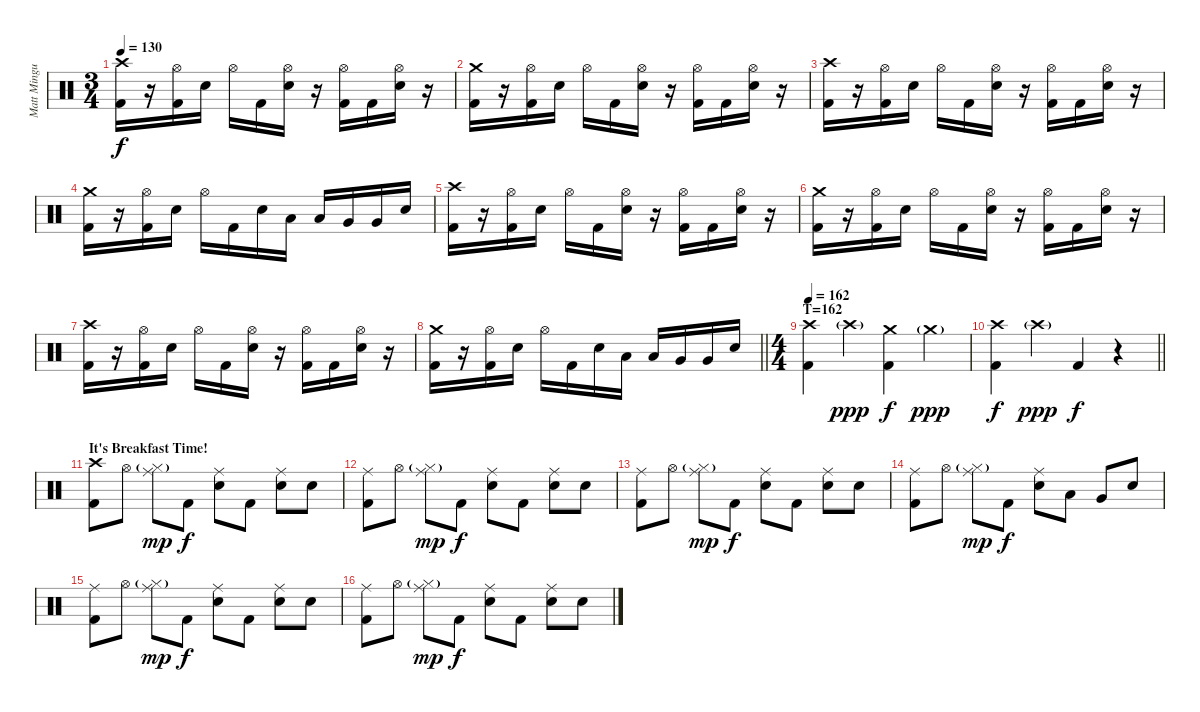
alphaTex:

\track ("Matt Mingus" "Matt Mingu") {instrument percussion}
\staff {score}
\articulation defaults
\ts (3 4)
\tempo 130
\clef neutral
\ks c
("Crash high (hit)" "Kick (hit) 2").16{dy f} r.16 ("Hi-Hat (open)" "Kick (hit) 2").16 "Electric Snare (hit)".16 "Hi-Hat (open)".16 "Kick (hit) 2".16 ("Hi-Hat (open)" "Electric Snare (hit)").16 r.16 ("Hi-Hat (open)" "Kick (hit) 2").16 "Kick (hit) 2".16 ("Hi-Hat (open)" "Electric Snare (hit)").16 r.16 |
("Crash medium (hit)" "Kick (hit) 2").16 r.16 ("Hi-Hat (open)" "Kick (hit) 2").16 "Electric Snare (hit)".16 "Hi-Hat (open)".16 "Kick (hit) 2".16 ("Hi-Hat (open)" "Electric Snare (hit)").16 r.16 ("Hi-Hat (open)" "Kick (hit) 2").16 "Kick (hit) 2".16 ("Hi-Hat (open)" "Electric Snare (hit)").16 r.16 |
("Crash high (hit)" "Kick (hit) 2").16 r.16 ("Hi-Hat (open)" "Kick (hit) 2").16 "Electric Snare (hit)".16 "Hi-Hat (open)".16 "Kick (hit) 2".16 ("Hi-Hat (open)" "Electric Snare (hit)").16 r.16 ("Hi-Hat (open)" "Kick (hit) 2").16 "Kick (hit) 2".16 ("Hi-Hat (open)" "Electric Snare (hit)").16 r.16 |
("Crash medium (hit)" "Kick (hit) 2").16 r.16 ("Hi-Hat (open)" "Kick (hit) 2").16 "Electric Snare (hit)".16 "Hi-Hat (open)".16 "Kick (hit) 2".16 "Electric Snare (hit)".16 "Low Tom (hit)".16 "Low Tom (hit)".16 "Very Low Tom (hit)".16 "Very Low Tom (hit)".16 "Electric Snare (hit)".16 |
("Crash high (hit)" "Kick (hit) 2").16 r.16 ("Hi-Hat (open)" "Kick (hit) 2").16 "Electric Snare (hit)".16 "Hi-Hat (open)".16 "Kick (hit) 2".16 ("Hi-Hat (open)" "Electric Snare (hit)").16 r.16 ("Hi-Hat (open)" "Kick (hit) 2").16 "Kick (hit) 2".16 ("Hi-Hat (open)" "Electric Snare (hit)").16 r.16 |
("Crash medium (hit)" "Kick (hit) 2").16 r.16 ("Hi-Hat (open)" "Kick (hit) 2").16 "Electric Snare (hit)".16 "Hi-Hat (open)".16 "Kick (hit) 2".16 ("Hi-Hat (open)" "Electric Snare (hit)").16 r.16 ("Hi-Hat (open)" "Kick (hit) 2").16 "Kick (hit) 2".16 ("Hi-Hat (open)" "Electric Snare (hit)").16 r.16 |
("Crash high (hit)" "Kick (hit) 2").16 r.16 ("Hi-Hat (open)" "Kick (hit) 2").16 "Electric Snare (hit)".16 "Hi-Hat (open)".16 "Kick (hit) 2".16 ("Hi-Hat (open)" "Electric Snare (hit)").16 r.16 ("Hi-Hat (open)" "Kick (hit) 2").16 "Kick (hit) 2".16 ("Hi-Hat (open)" "Electric Snare (hit)").16 r.16 |
\barLineRight lightlight
("Crash medium (hit)" "Kick (hit) 2").16 r.16 ("Hi-Hat (open)" "Kick (hit) 2").16 "Electric Snare (hit)".16 "Hi-Hat (open)".16 "Kick (hit) 2".16 "Electric Snare (hit)".16 "Low Tom (hit)".16 "Low Tom (hit)".16 "Very Low Tom (hit)".16 "Very Low Tom (hit)".16 "Electric Snare (hit)".16 |
\ts (4 4)
\section ("" "T=162")
\tempo 162
("Crash high (hit)" "Kick (hit) 2").4 "Crash high (hit)"{g}.4{dy ppp} ("Crash medium (hit)" "Kick (hit) 2").4{dy f} "Crash medium (hit)"{g}.4{dy ppp} |
\barLineRight lightlight
("Crash high (hit)" "Kick (hit) 2").4{dy f} "Crash high (hit)"{g}.4{dy ppp} "Kick (hit) 2".4{dy f} r.4 |
\section ("" "It's Breakfast Time!")
("Crash high (hit)" "Kick (hit) 2").8 "Hi-Hat (open)".8 ("Hi-Hat (closed)"{g} "Ride (middle)").8{dy mp} "Kick (hit) 2".8{dy f} ("Ride (middle)" "Electric Snare (hit)").8 "Kick (hit) 2".8 ("Ride (middle)" "Electric Snare (hit)").8 "Electric Snare (hit)".8 |
("Ride (middle)" "Kick (hit) 2").8 "Hi-Hat (open)".8 ("Hi-Hat (closed)"{g} "Ride (middle)").8{dy mp} "Kick (hit) 2".8{dy f} ("Ride (middle)" "Electric Snare (hit)").8 "Kick (hit) 2".8 ("Ride (middle)" "Electric Snare (hit)").8 "Electric Snare (hit)".8 |
("Ride (middle)" "Kick (hit) 2").8 "Hi-Hat (open)".8 ("Hi-Hat (closed)"{g} "Ride (middle)").8{dy mp} "Kick (hit) 2".8{dy f} ("Ride (middle)" "Electric Snare (hit)").8 "Kick (hit) 2".8 ("Ride (middle)" "Electric Snare (hit)").8 "Electric Snare (hit)".8 |
("Ride (middle)" "Kick (hit) 2").8 "Hi-Hat (open)".8 ("Hi-Hat (closed)"{g} "Ride (middle)").8{dy mp} "Kick (hit) 2".8{dy f} ("Ride (middle)" "Electric Snare (hit)").8 "Low Tom (hit)".8 "Very Low Tom (hit)".8 "Electric Snare (hit)".8 |
("Ride (middle)" "Kick (hit) 2").8 "Hi-Hat (open)".8 ("Hi-Hat (closed)"{g} "Ride (middle)").8{dy mp} "Kick (hit) 2".8{dy f} ("Ride (middle)" "Electric Snare (hit)").8 "Kick (hit) 2".8 ("Ride (middle)" "Electric Snare (hit)").8 "Electric Snare (hit)".8 |
("Ride (middle)" "Kick (hit) 2").8 "Hi-Hat (open)".8 ("Hi-Hat (closed)"{g} "Ride (middle)").8{dy mp} "Kick (hit) 2".8{dy f} ("Ride (middle)" "Electric Snare (hit)").8 "Kick (hit) 2".8 ("Ride (middle)" "Electric Snare (hit)").8 "Electric Snare (hit)".8
